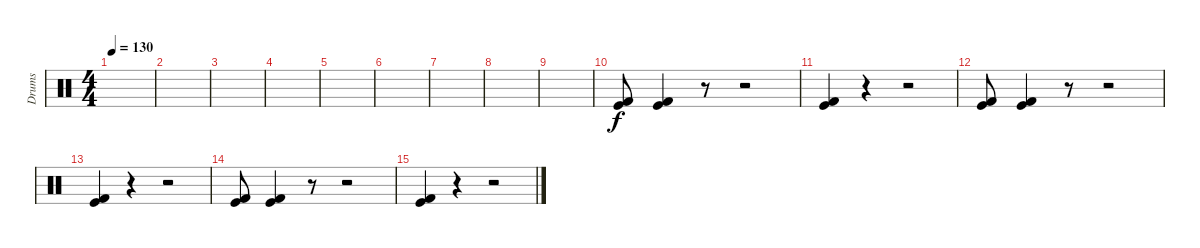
\track ("Drums" "Drums") {instrument percussion}
\staff {score}
\articulation defaults
\ts (4 4)
\tempo 130
\clef neutral
\ks c
|
|
|
|
|
|
|
|
|
("Kick (hit)" "Kick (hit) 2").8 ("Kick (hit) 2" "Kick (hit)").4 r.8 r.2 |
("Kick (hit) 2" "Kick (hit)").4 r.4 r.2 |
("Kick (hit)" "Kick (hit) 2").8 ("Kick (hit) 2" "Kick (hit)").4 r.8 r.2 |
("Kick (hit) 2" "Kick (hit)").4 r.4 r.2 |
("Kick (hit)" "Kick (hit) 2").8 ("Kick (hit) 2" "Kick (hit)").4 r.8 r.2 |
("Kick (hit) 2" "Kick (hit)").4 r.4 r.2
